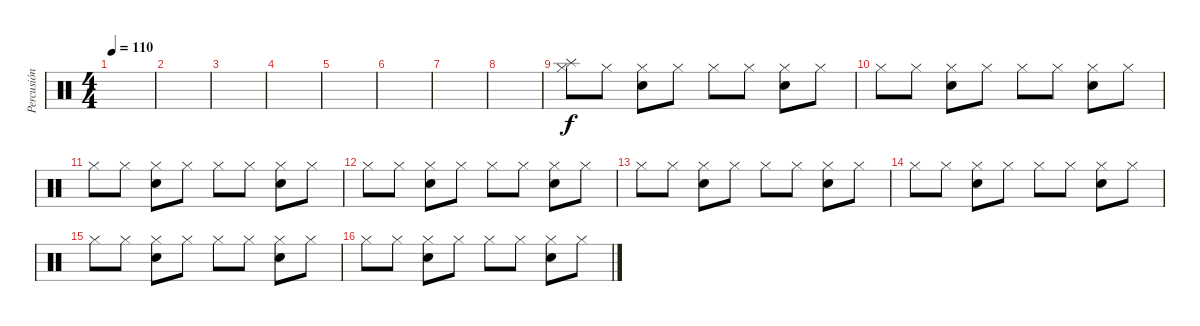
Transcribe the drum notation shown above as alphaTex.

\track ("Percusión" "Percusión") {instrument percussion}
\staff {score}
\articulation defaults
\ts (4 4)
\tempo 110
\clef neutral
\ks c
|
|
|
|
|
|
|
|
("Hi-Hat (closed)" "Splash (hit)").8 "Hi-Hat (closed)".8{dy f} ("Hi-Hat (closed)" "Hand Clap (hit)").8 "Hi-Hat (closed)".8 "Hi-Hat (closed)".8 "Hi-Hat (closed)".8 ("Hi-Hat (closed)" "Hand Clap (hit)").8 "Hi-Hat (closed)".8 |
"Hi-Hat (closed)".8 "Hi-Hat (closed)".8 ("Hi-Hat (closed)" "Hand Clap (hit)").8 "Hi-Hat (closed)".8 "Hi-Hat (closed)".8 "Hi-Hat (closed)".8 ("Hi-Hat (closed)" "Hand Clap (hit)").8 "Hi-Hat (closed)".8 |
"Hi-Hat (closed)".8 "Hi-Hat (closed)".8 ("Hi-Hat (closed)" "Hand Clap (hit)").8 "Hi-Hat (closed)".8 "Hi-Hat (closed)".8 "Hi-Hat (closed)".8 ("Hi-Hat (closed)" "Hand Clap (hit)").8 "Hi-Hat (closed)".8 |
"Hi-Hat (closed)".8 "Hi-Hat (closed)".8 ("Hi-Hat (closed)" "Hand Clap (hit)").8 "Hi-Hat (closed)".8 "Hi-Hat (closed)".8 "Hi-Hat (closed)".8 ("Hi-Hat (closed)" "Hand Clap (hit)").8 "Hi-Hat (closed)".8 |
"Hi-Hat (closed)".8 "Hi-Hat (closed)".8 ("Hi-Hat (closed)" "Hand Clap (hit)").8 "Hi-Hat (closed)".8 "Hi-Hat (closed)".8 "Hi-Hat (closed)".8 ("Hi-Hat (closed)" "Hand Clap (hit)").8 "Hi-Hat (closed)".8 |
"Hi-Hat (closed)".8 "Hi-Hat (closed)".8 ("Hi-Hat (closed)" "Hand Clap (hit)").8 "Hi-Hat (closed)".8 "Hi-Hat (closed)".8 "Hi-Hat (closed)".8 ("Hi-Hat (closed)" "Hand Clap (hit)").8 "Hi-Hat (closed)".8 |
"Hi-Hat (closed)".8 "Hi-Hat (closed)".8 ("Hi-Hat (closed)" "Hand Clap (hit)").8 "Hi-Hat (closed)".8 "Hi-Hat (closed)".8 "Hi-Hat (closed)".8 ("Hi-Hat (closed)" "Hand Clap (hit)").8 "Hi-Hat (closed)".8 |
"Hi-Hat (closed)".8 "Hi-Hat (closed)".8 ("Hi-Hat (closed)" "Hand Clap (hit)").8 "Hi-Hat (closed)".8 "Hi-Hat (closed)".8 "Hi-Hat (closed)".8 ("Hi-Hat (closed)" "Hand Clap (hit)").8 "Hi-Hat (closed)".8
